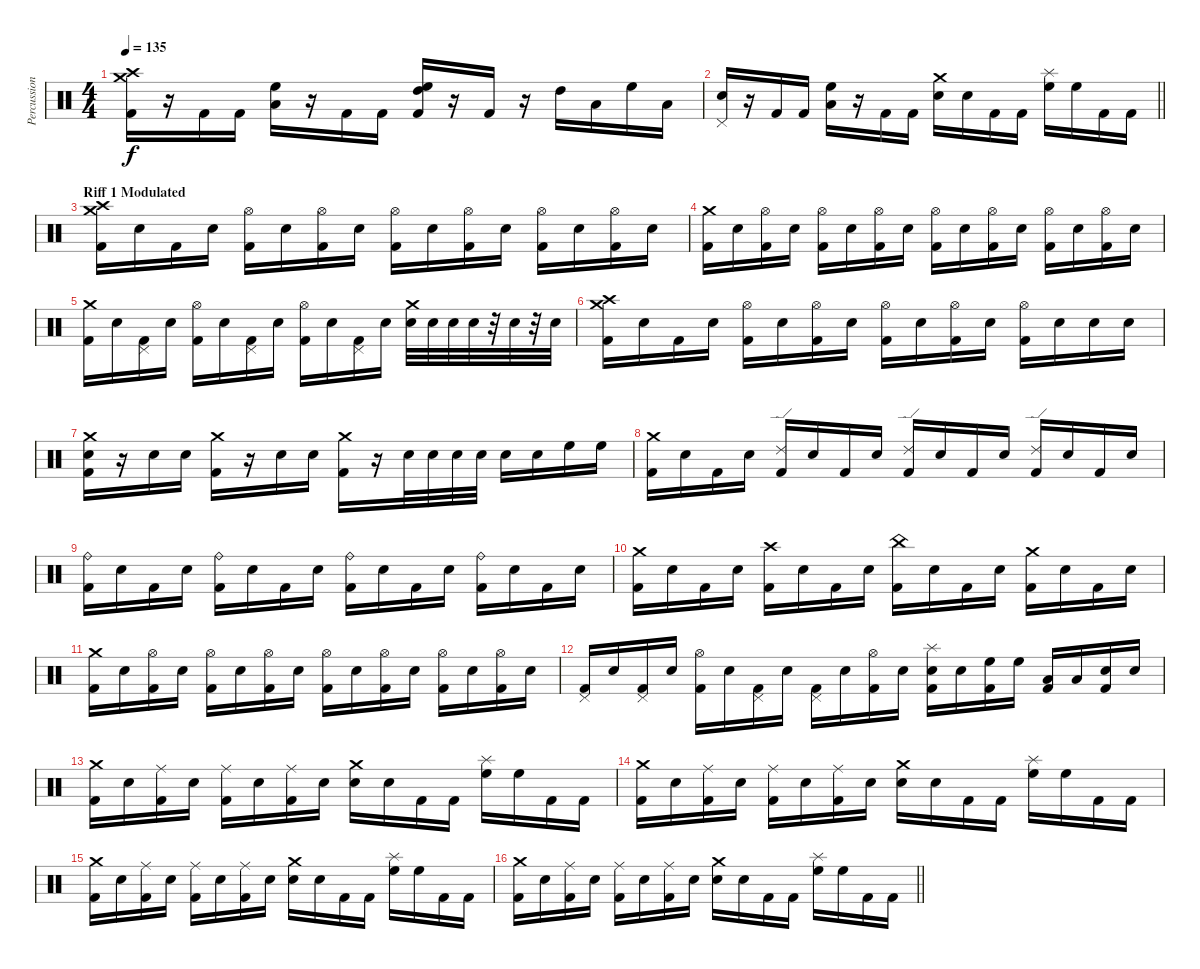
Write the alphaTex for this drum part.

\track ("Percussion" "Percussion") {instrument percussion}
\staff {score}
\articulation defaults
\ts (4 4)
\tempo 135
\clef neutral
\ks c
("Crash medium (hit)" "Crash high (hit)" "Kick (hit) 2").16{dy f} r.16 "Kick (hit) 2".16 "Kick (hit) 2".16 ("Low Tom (hit)" "High Floor Tom (hit)").16 r.16 "Kick (hit) 2".16 "Kick (hit) 2".16 ("High Tom (hit)" "High Floor Tom (hit)" "Kick (hit) 2").16 r.16 "Kick (hit) 2".16 r.16 "High Tom (hit)".16 "Low Tom (hit)".16 "High Floor Tom (hit)".16 "Low Tom (hit)".16 |
\barLineRight lightlight
("Pedal Hi-Hat (hit)" "Electric Snare (hit)").16 r.16 "Kick (hit) 2".16 "Kick (hit) 2".16 ("Low Tom (hit)" "High Floor Tom (hit)").16 r.16 "Kick (hit) 2".16 "Kick (hit) 2".16 ("Crash medium (hit)" "Electric Snare (hit)").16 "Electric Snare (hit)".16 "Kick (hit) 2".16 "Kick (hit) 2".16 ("Splash (hit)" "High Floor Tom (hit)").16 "High Floor Tom (hit)".16 "Kick (hit) 2".16 "Kick (hit) 2".16 |
\section ("" "Riff 1 Modulated")
("Crash medium (hit)" "Crash high (hit)" "Kick (hit) 2").16 "Electric Snare (hit)".16 "Kick (hit) 2".16 "Electric Snare (hit)".16 ("Hi-Hat (open)" "Kick (hit) 2").16 "Electric Snare (hit)".16 ("Hi-Hat (open)" "Kick (hit) 2").16 "Electric Snare (hit)".16 ("Hi-Hat (open)" "Kick (hit) 2").16 "Electric Snare (hit)".16 ("Hi-Hat (open)" "Kick (hit) 2").16 "Electric Snare (hit)".16 ("Hi-Hat (open)" "Kick (hit) 2").16 "Electric Snare (hit)".16 ("Hi-Hat (open)" "Kick (hit) 2").16 "Electric Snare (hit)".16 |
("Crash medium (hit)" "Kick (hit) 2").16 "Electric Snare (hit)".16 ("Hi-Hat (open)" "Kick (hit) 2").16 "Electric Snare (hit)".16 ("Hi-Hat (open)" "Kick (hit) 2").16 "Electric Snare (hit)".16 ("Hi-Hat (open)" "Kick (hit) 2").16 "Electric Snare (hit)".16 ("Hi-Hat (open)" "Kick (hit) 2").16 "Electric Snare (hit)".16 ("Hi-Hat (open)" "Kick (hit) 2").16 "Electric Snare (hit)".16 ("Hi-Hat (open)" "Kick (hit) 2").16 "Electric Snare (hit)".16 ("Hi-Hat (open)" "Kick (hit) 2").16 "Electric Snare (hit)".16 |
("Crash medium (hit)" "Kick (hit) 2").16 "Electric Snare (hit)".16 ("Pedal Hi-Hat (hit)" "Kick (hit) 2").16 "Electric Snare (hit)".16 ("Hi-Hat (open)" "Kick (hit) 2").16 "Electric Snare (hit)".16 ("Pedal Hi-Hat (hit)" "Kick (hit) 2").16 "Electric Snare (hit)".16 ("Hi-Hat (open)" "Kick (hit) 2").16 "Electric Snare (hit)".16 ("Pedal Hi-Hat (hit)" "Kick (hit) 2").16 "Electric Snare (hit)".16 ("Crash medium (hit)" "Electric Snare (hit)").32 "Electric Snare (hit)".32 "Electric Snare (hit)".32 "Electric Snare (hit)".32 r.32 "Electric Snare (hit)".32 r.32 "Electric Snare (hit)".32 |
("Crash medium (hit)" "Crash high (hit)" "Kick (hit) 2").16 "Electric Snare (hit)".16 "Kick (hit) 2".16 "Electric Snare (hit)".16 ("Hi-Hat (open)" "Kick (hit) 2").16 "Electric Snare (hit)".16 ("Hi-Hat (open)" "Kick (hit) 2").16 "Electric Snare (hit)".16 ("Hi-Hat (open)" "Kick (hit) 2").16 "Electric Snare (hit)".16 ("Hi-Hat (open)" "Kick (hit) 2").16 "Electric Snare (hit)".16 ("Hi-Hat (open)" "Kick (hit) 2").16 "Electric Snare (hit)".16 "Electric Snare (hit)".16 "Electric Snare (hit)".16 |
("Crash medium (hit)" "Electric Snare (hit)" "Kick (hit) 2").16 r.16 "Electric Snare (hit)".16 "Electric Snare (hit)".16 ("Crash medium (hit)" "Kick (hit) 2").16 r.16 "Electric Snare (hit)".16 "Electric Snare (hit)".16 ("Crash medium (hit)" "Kick (hit) 2").16 r.16 "Electric Snare (hit)".32 "Electric Snare (hit)".32 "Electric Snare (hit)".32 "Electric Snare (hit)".32 "Electric Snare (hit)".16 "Electric Snare (hit)".16 "High Floor Tom (hit)".16 "High Floor Tom (hit)".16 |
("Crash medium (hit)" "Kick (hit) 2").16 "Electric Snare (hit)".16 "Kick (hit) 2".16 "Electric Snare (hit)".16 ("Ride (edge) 2" "Kick (hit) 2").16 "Electric Snare (hit)".16 "Kick (hit) 2".16 "Electric Snare (hit)".16 ("Ride (edge) 2" "Kick (hit) 2").16 "Electric Snare (hit)".16 "Kick (hit) 2".16 "Electric Snare (hit)".16 ("Ride (edge) 2" "Kick (hit) 2").16 "Electric Snare (hit)".16 "Kick (hit) 2".16 "Electric Snare (hit)".16 |
("Ride (bell)" "Kick (hit) 2").16 "Electric Snare (hit)".16 "Kick (hit) 2".16 "Electric Snare (hit)".16 ("Ride (bell)" "Kick (hit) 2").16 "Electric Snare (hit)".16 "Kick (hit) 2".16 "Electric Snare (hit)".16 ("Ride (bell)" "Kick (hit) 2").16 "Electric Snare (hit)".16 "Kick (hit) 2".16 "Electric Snare (hit)".16 ("Ride (bell)" "Kick (hit) 2").16 "Electric Snare (hit)".16 "Kick (hit) 2".16 "Electric Snare (hit)".16 |
("Crash medium (hit)" "Kick (hit) 2").16 "Electric Snare (hit)".16 "Kick (hit) 2".16 "Electric Snare (hit)".16 ("Crash high (hit)" "Kick (hit) 2").16 "Electric Snare (hit)".16 "Kick (hit) 2".16 "Electric Snare (hit)".16 ("China (hit)" "Kick (hit) 2").16 "Electric Snare (hit)".16 "Kick (hit) 2".16 "Electric Snare (hit)".16 ("Crash medium (hit)" "Kick (hit) 2").16 "Electric Snare (hit)".16 "Kick (hit) 2".16 "Electric Snare (hit)".16 |
("Crash medium (hit)" "Kick (hit) 2").16 "Electric Snare (hit)".16 ("Hi-Hat (open)" "Kick (hit) 2").16 "Electric Snare (hit)".16 ("Hi-Hat (open)" "Kick (hit) 2").16 "Electric Snare (hit)".16 ("Hi-Hat (open)" "Kick (hit) 2").16 "Electric Snare (hit)".16 ("Hi-Hat (open)" "Kick (hit) 2").16 "Electric Snare (hit)".16 ("Hi-Hat (open)" "Kick (hit) 2").16 "Electric Snare (hit)".16 ("Hi-Hat (open)" "Kick (hit) 2").16 "Electric Snare (hit)".16 ("Hi-Hat (open)" "Kick (hit) 2").16 "Electric Snare (hit)".16 |
("Pedal Hi-Hat (hit)" "Kick (hit) 2").16 "Electric Snare (hit)".16 ("Pedal Hi-Hat (hit)" "Kick (hit) 2").16 "Electric Snare (hit)".16 ("Hi-Hat (open)" "Kick (hit) 2").16 "Electric Snare (hit)".16 ("Pedal Hi-Hat (hit)" "Kick (hit) 2").16 "Electric Snare (hit)".16 ("Pedal Hi-Hat (hit)" "Kick (hit) 2").16 "Electric Snare (hit)".16 ("Hi-Hat (open)" "Kick (hit) 2").16 "Electric Snare (hit)".16 ("Splash (hit)" "Electric Snare (hit)" "Kick (hit) 2").16 "Electric Snare (hit)".16 ("High Floor Tom (hit)" "Kick (hit) 2").16 "High Floor Tom (hit)".16 ("Low Tom (hit)" "Kick (hit) 2").16 "Low Tom (hit)".16 ("Electric Snare (hit)" "Kick (hit) 2").16 "Electric Snare (hit)".16 |
("Crash medium (hit)" "Kick (hit) 2").16 "Electric Snare (hit)".16 ("Ride (middle)" "Kick (hit) 2").16 "Electric Snare (hit)".16 ("Ride (middle)" "Kick (hit) 2").16 "Electric Snare (hit)".16 ("Ride (middle)" "Kick (hit) 2").16 "Electric Snare (hit)".16 ("Crash medium (hit)" "Electric Snare (hit)").16 "Electric Snare (hit)".16 "Kick (hit) 2".16 "Kick (hit) 2".16 ("Splash (hit)" "High Floor Tom (hit)").16 "High Floor Tom (hit)".16 "Kick (hit) 2".16 "Kick (hit) 2".16 |
("Crash medium (hit)" "Kick (hit) 2").16 "Electric Snare (hit)".16 ("Ride (middle)" "Kick (hit) 2").16 "Electric Snare (hit)".16 ("Ride (middle)" "Kick (hit) 2").16 "Electric Snare (hit)".16 ("Ride (middle)" "Kick (hit) 2").16 "Electric Snare (hit)".16 ("Crash medium (hit)" "Electric Snare (hit)").16 "Electric Snare (hit)".16 "Kick (hit) 2".16 "Kick (hit) 2".16 ("Splash (hit)" "High Floor Tom (hit)").16 "High Floor Tom (hit)".16 "Kick (hit) 2".16 "Kick (hit) 2".16 |
("Crash medium (hit)" "Kick (hit) 2").16 "Electric Snare (hit)".16 ("Ride (middle)" "Kick (hit) 2").16 "Electric Snare (hit)".16 ("Ride (middle)" "Kick (hit) 2").16 "Electric Snare (hit)".16 ("Ride (middle)" "Kick (hit) 2").16 "Electric Snare (hit)".16 ("Crash medium (hit)" "Electric Snare (hit)").16 "Electric Snare (hit)".16 "Kick (hit) 2".16 "Kick (hit) 2".16 ("Splash (hit)" "High Floor Tom (hit)").16 "High Floor Tom (hit)".16 "Kick (hit) 2".16 "Kick (hit) 2".16 |
\barLineRight lightlight
("Crash medium (hit)" "Kick (hit) 2").16 "Electric Snare (hit)".16 ("Ride (middle)" "Kick (hit) 2").16 "Electric Snare (hit)".16 ("Ride (middle)" "Kick (hit) 2").16 "Electric Snare (hit)".16 ("Ride (middle)" "Kick (hit) 2").16 "Electric Snare (hit)".16 ("Crash medium (hit)" "Electric Snare (hit)").16 "Electric Snare (hit)".16 "Kick (hit) 2".16 "Kick (hit) 2".16 ("Splash (hit)" "High Floor Tom (hit)").16 "High Floor Tom (hit)".16 "Kick (hit) 2".16 "Kick (hit) 2".16
